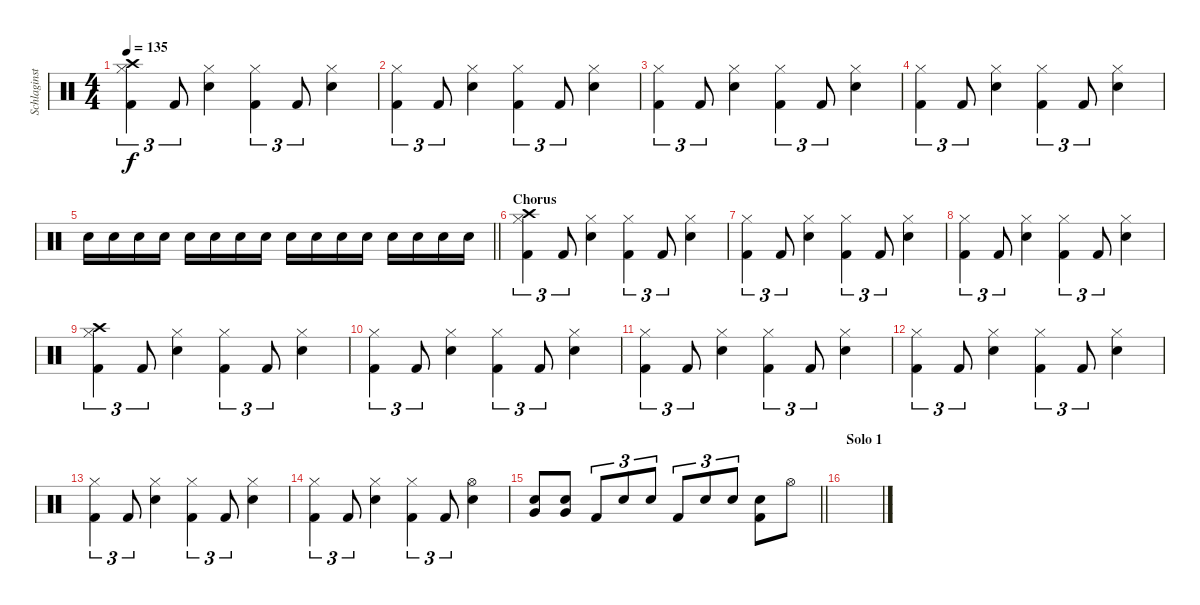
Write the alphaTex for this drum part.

\track ("Schlaginstrumente - Auswahl" "Schlaginst") {instrument percussion}
\staff {score}
\articulation defaults
\ts (4 4)
\tempo 135
\clef neutral
\ks c
("Crash high (hit)" "Hi-Hat (closed)" "Kick (hit) 2").4{tu (3 2) dy f} "Kick (hit) 2".8{tu (3 2)} ("Hi-Hat (closed)" "Electric Snare (hit)").4 ("Hi-Hat (closed)" "Kick (hit) 2").4{tu (3 2)} "Kick (hit) 2".8{tu (3 2)} ("Hi-Hat (closed)" "Electric Snare (hit)").4 |
("Hi-Hat (closed)" "Kick (hit) 2").4{tu (3 2)} "Kick (hit) 2".8{tu (3 2)} ("Hi-Hat (closed)" "Electric Snare (hit)").4 ("Hi-Hat (closed)" "Kick (hit) 2").4{tu (3 2)} "Kick (hit) 2".8{tu (3 2)} ("Hi-Hat (closed)" "Electric Snare (hit)").4 |
("Hi-Hat (closed)" "Kick (hit) 2").4{tu (3 2)} "Kick (hit) 2".8{tu (3 2)} ("Hi-Hat (closed)" "Electric Snare (hit)").4 ("Hi-Hat (closed)" "Kick (hit) 2").4{tu (3 2)} "Kick (hit) 2".8{tu (3 2)} ("Hi-Hat (closed)" "Electric Snare (hit)").4 |
("Hi-Hat (closed)" "Kick (hit) 2").4{tu (3 2)} "Kick (hit) 2".8{tu (3 2)} ("Hi-Hat (closed)" "Electric Snare (hit)").4 ("Hi-Hat (closed)" "Kick (hit) 2").4{tu (3 2)} "Kick (hit) 2".8{tu (3 2)} ("Hi-Hat (closed)" "Electric Snare (hit)").4 |
\barLineRight lightlight "Electric Snare (hit)".16 "Electric Snare (hit)".16 "Electric Snare (hit)".16 "Electric Snare (hit)".16 "Electric Snare (hit)".16 "Electric Snare (hit)".16 "Electric Snare (hit)".16 "Electric Snare (hit)".16 "Electric Snare (hit)".16 "Electric Snare (hit)".16 "Electric Snare (hit)".16 "Electric Snare (hit)".16 "Electric Snare (hit)".16 "Electric Snare (hit)".16 "Electric Snare (hit)".16 "Electric Snare (hit)".16
|
\section ("" "Chorus")
("Crash high (hit)" "Hi-Hat (closed)" "Kick (hit) 2").4{tu (3 2)} "Kick (hit) 2".8{tu (3 2)} ("Hi-Hat (closed)" "Electric Snare (hit)").4 ("Hi-Hat (closed)" "Kick (hit) 2").4{tu (3 2)} "Kick (hit) 2".8{tu (3 2)} ("Hi-Hat (closed)" "Electric Snare (hit)").4 |
("Hi-Hat (closed)" "Kick (hit) 2").4{tu (3 2)} "Kick (hit) 2".8{tu (3 2)} ("Hi-Hat (closed)" "Electric Snare (hit)").4 ("Hi-Hat (closed)" "Kick (hit) 2").4{tu (3 2)} "Kick (hit) 2".8{tu (3 2)} ("Hi-Hat (closed)" "Electric Snare (hit)").4 |
("Hi-Hat (closed)" "Kick (hit) 2").4{tu (3 2)} "Kick (hit) 2".8{tu (3 2)} ("Hi-Hat (closed)" "Electric Snare (hit)").4 ("Hi-Hat (closed)" "Kick (hit) 2").4{tu (3 2)} "Kick (hit) 2".8{tu (3 2)} ("Hi-Hat (closed)" "Electric Snare (hit)").4 |
("Crash high (hit)" "Hi-Hat (closed)" "Kick (hit) 2").4{tu (3 2)} "Kick (hit) 2".8{tu (3 2)} ("Hi-Hat (closed)" "Electric Snare (hit)").4 ("Hi-Hat (closed)" "Kick (hit) 2").4{tu (3 2)} "Kick (hit) 2".8{tu (3 2)} ("Hi-Hat (closed)" "Electric Snare (hit)").4 |
("Hi-Hat (closed)" "Kick (hit) 2").4{tu (3 2)} "Kick (hit) 2".8{tu (3 2)} ("Hi-Hat (closed)" "Electric Snare (hit)").4 ("Hi-Hat (closed)" "Kick (hit) 2").4{tu (3 2)} "Kick (hit) 2".8{tu (3 2)} ("Hi-Hat (closed)" "Electric Snare (hit)").4 |
("Hi-Hat (closed)" "Kick (hit) 2").4{tu (3 2)} "Kick (hit) 2".8{tu (3 2)} ("Hi-Hat (closed)" "Electric Snare (hit)").4 ("Hi-Hat (closed)" "Kick (hit) 2").4{tu (3 2)} "Kick (hit) 2".8{tu (3 2)} ("Hi-Hat (closed)" "Electric Snare (hit)").4 |
("Hi-Hat (closed)" "Kick (hit) 2").4{tu (3 2)} "Kick (hit) 2".8{tu (3 2)} ("Hi-Hat (closed)" "Electric Snare (hit)").4 ("Hi-Hat (closed)" "Kick (hit) 2").4{tu (3 2)} "Kick (hit) 2".8{tu (3 2)} ("Hi-Hat (closed)" "Electric Snare (hit)").4 |
("Hi-Hat (closed)" "Kick (hit) 2").4{tu (3 2)} "Kick (hit) 2".8{tu (3 2)} ("Hi-Hat (closed)" "Electric Snare (hit)").4 ("Hi-Hat (closed)" "Kick (hit) 2").4{tu (3 2)} "Kick (hit) 2".8{tu (3 2)} ("Hi-Hat (closed)" "Electric Snare (hit)").4 |
("Hi-Hat (closed)" "Kick (hit) 2").4{tu (3 2)} "Kick (hit) 2".8{tu (3 2)} ("Hi-Hat (closed)" "Electric Snare (hit)").4 ("Hi-Hat (closed)" "Kick (hit) 2").4{tu (3 2)} "Kick (hit) 2".8{tu (3 2)} ("Hi-Hat (open)" "Electric Snare (hit)").4 |
\barLineRight lightlight
("Very Low Tom (hit)" "Electric Snare (hit)").8 ("Very Low Tom (hit)" "Electric Snare (hit)").8 "Kick (hit) 2".8{tu (3 2)} "Electric Snare (hit)".8{tu (3 2)} "Electric Snare (hit)".8{tu (3 2)} "Kick (hit) 2".8{tu (3 2)} "Electric Snare (hit)".8{tu (3 2)} "Electric Snare (hit)".8{tu (3 2)} ("Electric Snare (hit)" "Kick (hit) 2").8 "Hi-Hat (open)".8 |
\section ("" "Solo 1")
